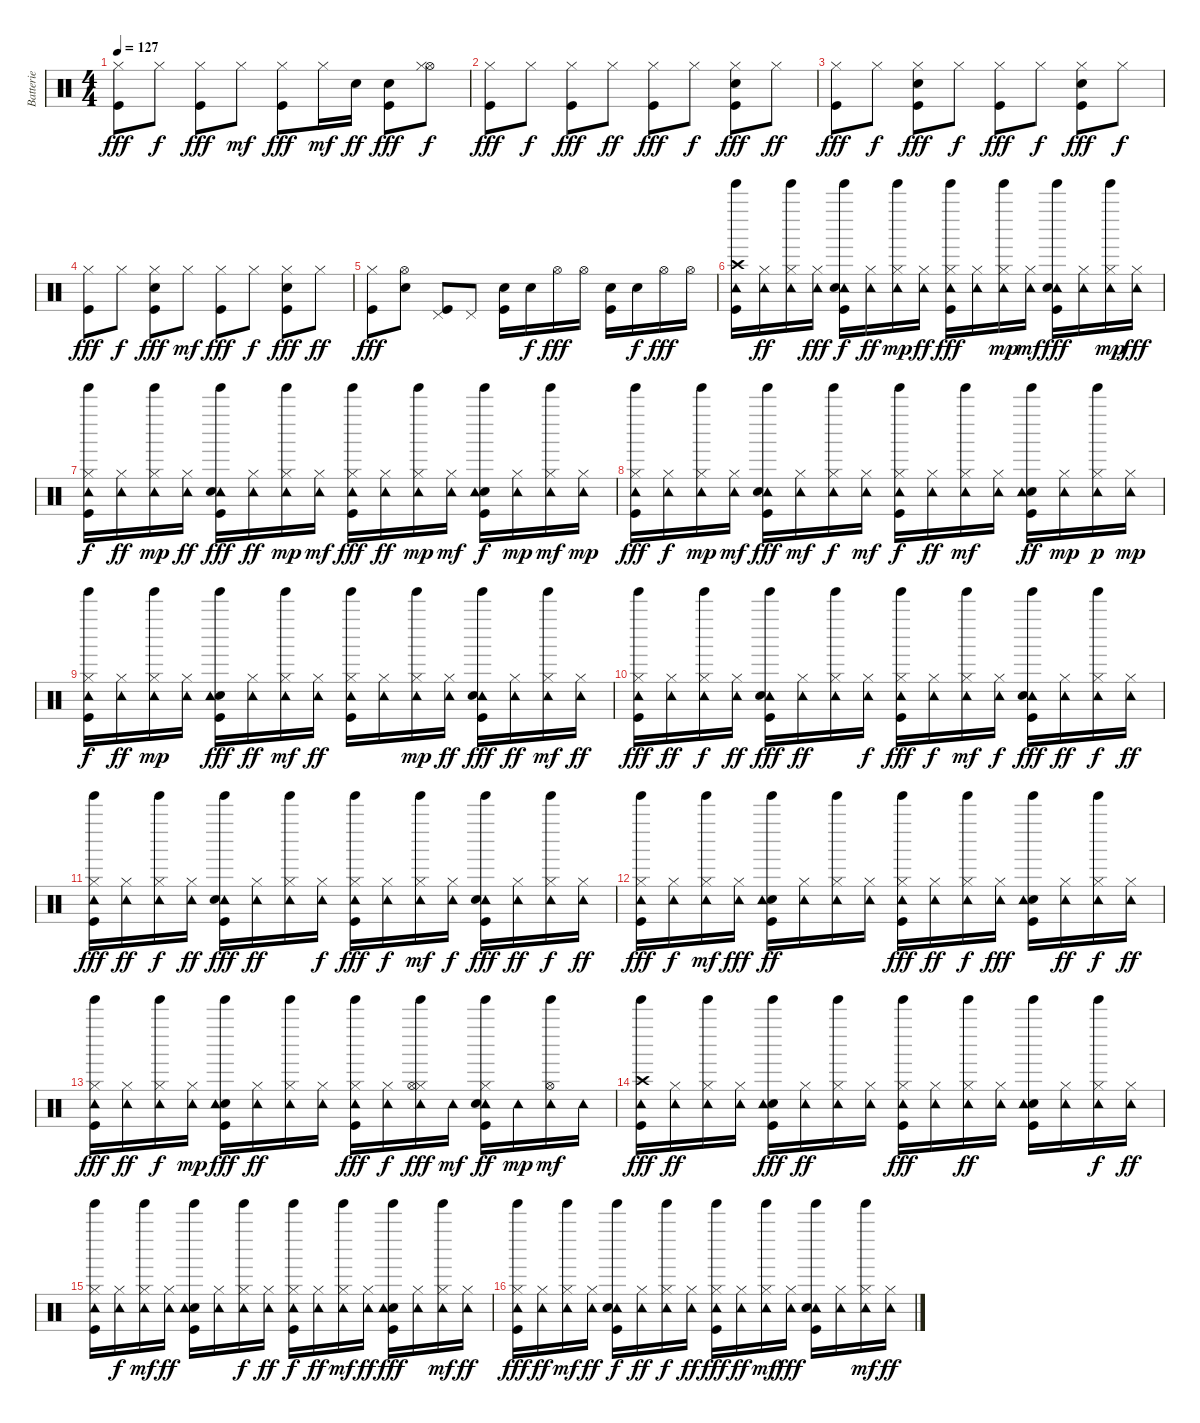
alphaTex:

\track ("Batterie" "Batterie") {instrument percussion}
\staff {score}
\articulation defaults
\ts (4 4)
\tempo 127
\clef neutral
\ks c
("Kick (hit)" "Hi-Hat (closed)").8{dy fff} "Hi-Hat (closed)".8{dy f} ("Kick (hit)" "Hi-Hat (closed)").8{dy fff} "Hi-Hat (closed)".8{dy mf} ("Hi-Hat (closed)" "Kick (hit)").8{dy fff} "Hi-Hat (closed)".16{dy mf} "Snare (hit) 2".16{dy ff} ("Snare (hit) 2" "Kick (hit)").8{dy fff} ("Hi-Hat (open)" "Hi-Hat (closed)").8{dy f} |
("Kick (hit)" "Hi-Hat (closed)").8{dy fff} "Hi-Hat (closed)".8{dy f} ("Kick (hit)" "Hi-Hat (closed)").8{dy fff} "Hi-Hat (closed)".8{dy ff} ("Kick (hit)" "Hi-Hat (closed)").8{dy fff} "Hi-Hat (closed)".8{dy f} ("Kick (hit)" "Snare (hit) 2" "Hi-Hat (closed)").8{dy fff} "Hi-Hat (closed)".8{dy ff} |
("Kick (hit)" "Hi-Hat (closed)").8{dy fff} "Hi-Hat (closed)".8{dy f} ("Kick (hit)" "Snare (hit) 2" "Hi-Hat (closed)").8{dy fff} "Hi-Hat (closed)".8{dy f} ("Kick (hit)" "Hi-Hat (closed)").8{dy fff} "Hi-Hat (closed)".8{dy f} ("Kick (hit)" "Snare (hit) 2" "Hi-Hat (closed)").8{dy fff} "Hi-Hat (closed)".8{dy f} |
("Kick (hit)" "Hi-Hat (closed)").8{dy fff} "Hi-Hat (closed)".8{dy f} ("Kick (hit)" "Snare (hit) 2" "Hi-Hat (closed)").8{dy fff} "Hi-Hat (closed)".8{dy mf} ("Kick (hit)" "Hi-Hat (closed)").8{dy fff} "Hi-Hat (closed)".8{dy f} ("Kick (hit)" "Snare (hit) 2" "Hi-Hat (closed)").8{dy fff} "Hi-Hat (closed)".8{dy ff} |
("Kick (hit)" "Hi-Hat (closed)").8{dy fff} ("Snare (hit) 2" "Hi-Hat (open)").8 ("Pedal Hi-Hat (hit)" "Kick (hit)").8 "Pedal Hi-Hat (hit)".8 ("Snare (hit) 2" "Kick (hit)").16 "Snare (hit) 2".16{dy f} "Hi-Hat (open)".16{dy fff} "Hi-Hat (open)".16 ("Snare (hit) 2" "Kick (hit)").16 "Snare (hit) 2".16{dy f} "Hi-Hat (open)".16{dy fff} "Hi-Hat (open)".16 |
("Crash high (hit)" "Tinkle Bell (hit)" "Tambourine (hit)" "Kick (hit)").16 ("Tambourine (hit)" "Hi-Hat (closed)").16{dy ff} ("Tinkle Bell (hit)" "Tambourine (hit)" "Hi-Hat (closed)").16 ("Tambourine (hit)" "Hi-Hat (closed)").16{dy fff} ("Tambourine (hit)" "Kick (hit)" "Snare (hit) 2" "Tinkle Bell (hit)").16{dy f} ("Tambourine (hit)" "Hi-Hat (closed)").16{dy ff} ("Hi-Hat (closed)" "Tambourine (hit)" "Tinkle Bell (hit)").16{dy mp} ("Tambourine (hit)" "Hi-Hat (closed)").16{dy ff} ("Kick (hit)" "Tambourine (hit)" "Tinkle Bell (hit)" "Hi-Hat (closed)").16{dy fff} ("Tambourine (hit)" "Hi-Hat (closed)").16 ("Hi-Hat (closed)" "Tambourine (hit)" "Tinkle Bell (hit)").16{dy mp} ("Hi-Hat (closed)" "Tambourine (hit)").16{dy mf} ("Tinkle Bell (hit)" "Tambourine (hit)" "Kick (hit)" "Snare (hit) 2").16{dy fff} ("Tambourine (hit)" "Hi-Hat (closed)").16 ("Hi-Hat (closed)" "Tambourine (hit)" "Tinkle Bell (hit)").16{dy mp} ("Tambourine (hit)" "Hi-Hat (closed)").16{dy fff} |
("Tambourine (hit)" "Kick (hit)" "Hi-Hat (closed)" "Tinkle Bell (hit)").16{dy f} ("Tambourine (hit)" "Hi-Hat (closed)").16{dy ff} ("Hi-Hat (closed)" "Tambourine (hit)" "Tinkle Bell (hit)").16{dy mp} ("Tambourine (hit)" "Hi-Hat (closed)").16{dy ff} ("Tambourine (hit)" "Tinkle Bell (hit)" "Kick (hit)" "Snare (hit) 2").16{dy fff} ("Tambourine (hit)" "Hi-Hat (closed)").16{dy ff} ("Tinkle Bell (hit)" "Hi-Hat (closed)" "Tambourine (hit)").16{dy mp} ("Hi-Hat (closed)" "Tambourine (hit)").16{dy mf} ("Tinkle Bell (hit)" "Tambourine (hit)" "Kick (hit)" "Hi-Hat (closed)").16{dy fff} ("Tambourine (hit)" "Hi-Hat (closed)").16{dy ff} ("Tinkle Bell (hit)" "Hi-Hat (closed)" "Tambourine (hit)").16{dy mp} ("Hi-Hat (closed)" "Tambourine (hit)").16{dy mf} ("Tinkle Bell (hit)" "Snare (hit) 2" "Kick (hit)" "Tambourine (hit)").16{dy f} ("Hi-Hat (closed)" "Tambourine (hit)").16{dy mp} ("Hi-Hat (closed)" "Tinkle Bell (hit)" "Tambourine (hit)").16{dy mf} ("Hi-Hat (closed)" "Tambourine (hit)").16{dy mp} |
("Hi-Hat (closed)" "Tinkle Bell (hit)" "Tambourine (hit)" "Kick (hit)").16{dy fff} ("Tambourine (hit)" "Hi-Hat (closed)").16{dy f} ("Hi-Hat (closed)" "Tinkle Bell (hit)" "Tambourine (hit)").16{dy mp} ("Hi-Hat (closed)" "Tambourine (hit)").16{dy mf} ("Tinkle Bell (hit)" "Kick (hit)" "Tambourine (hit)" "Snare (hit) 2").16{dy fff} ("Hi-Hat (closed)" "Tambourine (hit)").16{dy mf} ("Tinkle Bell (hit)" "Tambourine (hit)" "Hi-Hat (closed)").16{dy f} ("Hi-Hat (closed)" "Tambourine (hit)").16{dy mf} ("Tinkle Bell (hit)" "Kick (hit)" "Hi-Hat (closed)" "Tambourine (hit)").16{dy f} ("Tambourine (hit)" "Hi-Hat (closed)").16{dy ff} ("Tinkle Bell (hit)" "Hi-Hat (closed)" "Tambourine (hit)").16{dy mf} ("Hi-Hat (closed)" "Tambourine (hit)").16 ("Tinkle Bell (hit)" "Kick (hit)" "Snare (hit) 2" "Tambourine (hit)").16{dy ff} ("Hi-Hat (closed)" "Tambourine (hit)").16{dy mp} ("Tinkle Bell (hit)" "Hi-Hat (closed)" "Tambourine (hit)").16{dy p} ("Hi-Hat (closed)" "Tambourine (hit)").16{dy mp} |
("Kick (hit)" "Hi-Hat (closed)" "Tambourine (hit)" "Tinkle Bell (hit)").16{dy f} ("Tambourine (hit)" "Hi-Hat (closed)").16{dy ff} ("Hi-Hat (closed)" "Tambourine (hit)" "Tinkle Bell (hit)").16{dy mp} ("Hi-Hat (closed)" "Tambourine (hit)").16 ("Tinkle Bell (hit)" "Snare (hit) 2" "Tambourine (hit)" "Kick (hit)").16{dy fff} ("Tambourine (hit)" "Hi-Hat (closed)").16{dy ff} ("Tinkle Bell (hit)" "Tambourine (hit)" "Hi-Hat (closed)").16{dy mf} ("Tambourine (hit)" "Hi-Hat (closed)").16{dy ff} ("Tinkle Bell (hit)" "Hi-Hat (closed)" "Kick (hit)" "Tambourine (hit)").16 ("Tambourine (hit)" "Hi-Hat (closed)").16 ("Tinkle Bell (hit)" "Hi-Hat (closed)" "Tambourine (hit)").16{dy mp} ("Tambourine (hit)" "Hi-Hat (closed)").16{dy ff} ("Tinkle Bell (hit)" "Tambourine (hit)" "Kick (hit)" "Snare (hit) 2").16{dy fff} ("Tambourine (hit)" "Hi-Hat (closed)").16{dy ff} ("Tinkle Bell (hit)" "Tambourine (hit)" "Hi-Hat (closed)").16{dy mf} ("Tambourine (hit)" "Hi-Hat (closed)").16{dy ff} |
("Tinkle Bell (hit)" "Hi-Hat (closed)" "Tambourine (hit)" "Kick (hit)").16{dy fff} ("Tambourine (hit)" "Hi-Hat (closed)").16{dy ff} ("Tambourine (hit)" "Tinkle Bell (hit)" "Hi-Hat (closed)").16{dy f} ("Tambourine (hit)" "Hi-Hat (closed)").16{dy ff} ("Tinkle Bell (hit)" "Kick (hit)" "Tambourine (hit)" "Snare (hit) 2").16{dy fff} ("Tambourine (hit)" "Hi-Hat (closed)").16{dy ff} ("Tinkle Bell (hit)" "Tambourine (hit)" "Hi-Hat (closed)").16 ("Tambourine (hit)" "Hi-Hat (closed)").16{dy f} ("Tinkle Bell (hit)" "Hi-Hat (closed)" "Tambourine (hit)" "Kick (hit)").16{dy fff} ("Tambourine (hit)" "Hi-Hat (closed)").16{dy f} ("Tinkle Bell (hit)" "Hi-Hat (closed)" "Tambourine (hit)").16{dy mf} ("Tambourine (hit)" "Hi-Hat (closed)").16{dy f} ("Tinkle Bell (hit)" "Kick (hit)" "Tambourine (hit)" "Snare (hit) 2").16{dy fff} ("Tambourine (hit)" "Hi-Hat (closed)").16{dy ff} ("Tinkle Bell (hit)" "Tambourine (hit)" "Hi-Hat (closed)").16{dy f} ("Tambourine (hit)" "Hi-Hat (closed)").16{dy ff} |
("Tinkle Bell (hit)" "Hi-Hat (closed)" "Tambourine (hit)" "Kick (hit)").16{dy fff} ("Tambourine (hit)" "Hi-Hat (closed)").16{dy ff} ("Tambourine (hit)" "Tinkle Bell (hit)" "Hi-Hat (closed)").16{dy f} ("Tambourine (hit)" "Hi-Hat (closed)").16{dy ff} ("Tinkle Bell (hit)" "Kick (hit)" "Tambourine (hit)" "Snare (hit) 2").16{dy fff} ("Tambourine (hit)" "Hi-Hat (closed)").16{dy ff} ("Tinkle Bell (hit)" "Tambourine (hit)" "Hi-Hat (closed)").16 ("Tambourine (hit)" "Hi-Hat (closed)").16{dy f} ("Tinkle Bell (hit)" "Hi-Hat (closed)" "Tambourine (hit)" "Kick (hit)").16{dy fff} ("Tambourine (hit)" "Hi-Hat (closed)").16{dy f} ("Tinkle Bell (hit)" "Hi-Hat (closed)" "Tambourine (hit)").16{dy mf} ("Tambourine (hit)" "Hi-Hat (closed)").16{dy f} ("Tinkle Bell (hit)" "Kick (hit)" "Tambourine (hit)" "Snare (hit) 2").16{dy fff} ("Tambourine (hit)" "Hi-Hat (closed)").16{dy ff} ("Tinkle Bell (hit)" "Tambourine (hit)" "Hi-Hat (closed)").16{dy f} ("Tambourine (hit)" "Hi-Hat (closed)").16{dy ff} |
("Tambourine (hit)" "Tinkle Bell (hit)" "Kick (hit)" "Hi-Hat (closed)").16{dy fff} ("Tambourine (hit)" "Hi-Hat (closed)").16{dy f} ("Tinkle Bell (hit)" "Hi-Hat (closed)" "Tambourine (hit)").16{dy mf} ("Tambourine (hit)" "Hi-Hat (closed)").16{dy fff} ("Tinkle Bell (hit)" "Kick (hit)" "Snare (hit) 2" "Tambourine (hit)").16{dy ff} ("Tambourine (hit)" "Hi-Hat (closed)").16 ("Tinkle Bell (hit)" "Tambourine (hit)" "Hi-Hat (closed)").16 ("Tambourine (hit)" "Hi-Hat (closed)").16 ("Tinkle Bell (hit)" "Tambourine (hit)" "Kick (hit)" "Hi-Hat (closed)").16{dy fff} ("Tambourine (hit)" "Hi-Hat (closed)").16{dy ff} ("Tinkle Bell (hit)" "Tambourine (hit)" "Hi-Hat (closed)").16{dy f} ("Tambourine (hit)" "Hi-Hat (closed)").16{dy fff} ("Snare (hit) 2" "Tinkle Bell (hit)" "Tambourine (hit)" "Kick (hit)").16 ("Tambourine (hit)" "Hi-Hat (closed)").16{dy ff} ("Tambourine (hit)" "Tinkle Bell (hit)" "Hi-Hat (closed)").16{dy f} ("Tambourine (hit)" "Hi-Hat (closed)").16{dy ff} |
("Tinkle Bell (hit)" "Hi-Hat (closed)" "Tambourine (hit)" "Kick (hit)").16{dy fff} ("Tambourine (hit)" "Hi-Hat (closed)").16{dy ff} ("Tambourine (hit)" "Tinkle Bell (hit)" "Hi-Hat (closed)").16{dy f} ("Hi-Hat (closed)" "Tambourine (hit)").16{dy mp} ("Snare (hit) 2" "Tambourine (hit)" "Tinkle Bell (hit)" "Kick (hit)").16{dy fff} ("Tambourine (hit)" "Hi-Hat (closed)").16{dy ff} ("Tinkle Bell (hit)" "Tambourine (hit)" "Hi-Hat (closed)").16 ("Tambourine (hit)" "Hi-Hat (closed)").16 ("Tinkle Bell (hit)" "Hi-Hat (closed)" "Tambourine (hit)" "Kick (hit)").16{dy fff} ("Tambourine (hit)" "Hi-Hat (closed)").16{dy f} ("Tambourine (hit)" "Tinkle Bell (hit)" "Hi-Hat (closed)" "Hi-Hat (open)").16{dy fff} "Tambourine (hit)".16{dy mf} ("Tinkle Bell (hit)" "Tambourine (hit)" "Kick (hit)" "Snare (hit) 2" "Hi-Hat (closed)").16{dy ff} "Tambourine (hit)".16{dy mp} ("Tinkle Bell (hit)" "Hi-Hat (open)" "Tambourine (hit)").16{dy mf} "Tambourine (hit)".16 |
("Crash high (hit)" "Tinkle Bell (hit)" "Tambourine (hit)" "Kick (hit)").16{dy fff} ("Tambourine (hit)" "Hi-Hat (closed)").16{dy ff} ("Tambourine (hit)" "Tinkle Bell (hit)" "Hi-Hat (closed)").16 ("Tambourine (hit)" "Hi-Hat (closed)").16 ("Tinkle Bell (hit)" "Snare (hit) 2" "Tambourine (hit)" "Kick (hit)").16{dy fff} ("Tambourine (hit)" "Hi-Hat (closed)").16{dy ff} ("Tambourine (hit)" "Tinkle Bell (hit)" "Hi-Hat (closed)").16 ("Tambourine (hit)" "Hi-Hat (closed)").16 ("Tambourine (hit)" "Tinkle Bell (hit)" "Kick (hit)" "Hi-Hat (closed)").16{dy fff} ("Tambourine (hit)" "Hi-Hat (closed)").16 ("Tinkle Bell (hit)" "Tambourine (hit)" "Hi-Hat (closed)").16{dy ff} ("Tambourine (hit)" "Hi-Hat (closed)").16 ("Tinkle Bell (hit)" "Kick (hit)" "Snare (hit) 2" "Tambourine (hit)").16 ("Tambourine (hit)" "Hi-Hat (closed)").16 ("Tinkle Bell (hit)" "Tambourine (hit)" "Hi-Hat (closed)").16{dy f} ("Tambourine (hit)" "Hi-Hat (closed)").16{dy ff} |
("Tinkle Bell (hit)" "Kick (hit)" "Hi-Hat (closed)" "Tambourine (hit)").16 ("Tambourine (hit)" "Hi-Hat (closed)").16{dy f} ("Hi-Hat (closed)" "Tinkle Bell (hit)" "Tambourine (hit)").16{dy mf} ("Tambourine (hit)" "Hi-Hat (closed)").16{dy ff} ("Tinkle Bell (hit)" "Kick (hit)" "Snare (hit) 2" "Tambourine (hit)").16 ("Tambourine (hit)" "Hi-Hat (closed)").16 ("Tinkle Bell (hit)" "Tambourine (hit)" "Hi-Hat (closed)").16{dy f} ("Tambourine (hit)" "Hi-Hat (closed)").16{dy ff} ("Tinkle Bell (hit)" "Hi-Hat (closed)" "Kick (hit)" "Tambourine (hit)").16{dy f} ("Tambourine (hit)" "Hi-Hat (closed)").16{dy ff} ("Hi-Hat (closed)" "Tinkle Bell (hit)" "Tambourine (hit)").16{dy mf} ("Tambourine (hit)" "Hi-Hat (closed)").16{dy ff} ("Tinkle Bell (hit)" "Snare (hit) 2" "Tambourine (hit)" "Kick (hit)").16{dy fff} ("Tambourine (hit)" "Hi-Hat (closed)").16 ("Tinkle Bell (hit)" "Hi-Hat (closed)" "Tambourine (hit)").16{dy mf} ("Tambourine (hit)" "Hi-Hat (closed)").16{dy ff} |
("Hi-Hat (closed)" "Tambourine (hit)" "Tinkle Bell (hit)" "Kick (hit)").16{dy fff} ("Tambourine (hit)" "Hi-Hat (closed)").16{dy ff} ("Hi-Hat (closed)" "Tambourine (hit)" "Tinkle Bell (hit)").16{dy mf} ("Tambourine (hit)" "Hi-Hat (closed)").16{dy ff} ("Tambourine (hit)" "Kick (hit)" "Snare (hit) 2" "Tinkle Bell (hit)").16{dy f} ("Tambourine (hit)" "Hi-Hat (closed)").16{dy ff} ("Tinkle Bell (hit)" "Tambourine (hit)" "Hi-Hat (closed)").16{dy f} ("Tambourine (hit)" "Hi-Hat (closed)").16{dy ff} ("Tinkle Bell (hit)" "Hi-Hat (closed)" "Tambourine (hit)" "Kick (hit)").16{dy fff} ("Tambourine (hit)" "Hi-Hat (closed)").16{dy ff} ("Hi-Hat (closed)" "Tinkle Bell (hit)" "Tambourine (hit)").16{dy mf} ("Tambourine (hit)" "Hi-Hat (closed)").16{dy fff} ("Tinkle Bell (hit)" "Tambourine (hit)" "Kick (hit)" "Snare (hit) 2").16 ("Tambourine (hit)" "Hi-Hat (closed)").16 ("Tambourine (hit)" "Tinkle Bell (hit)" "Hi-Hat (closed)").16{dy mf} ("Tambourine (hit)" "Hi-Hat (closed)").16{dy ff}
